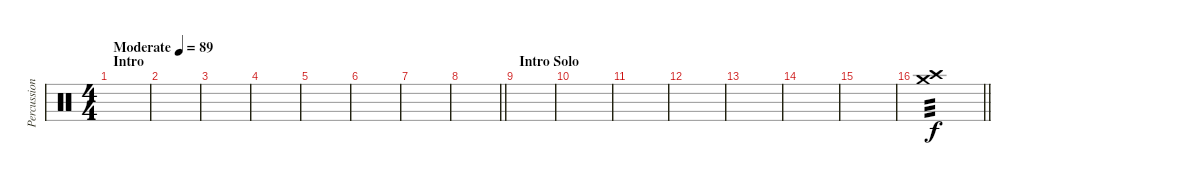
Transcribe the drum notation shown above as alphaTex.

\track ("Percussion" "Percussion") {instrument percussion}
\staff {score}
\articulation defaults
\ts (4 4)
\section ("" "Intro")
\tempo (89 "Moderate")
\clef neutral
\ks c
|
|
|
|
|
|
|
\barLineRight lightlight
|
\section ("" "Intro Solo")
|
|
|
|
|
|
|
\barLineRight lightlight
("Crash medium (hit)" "Crash high (hit)").1{tp 3 volume 16}
